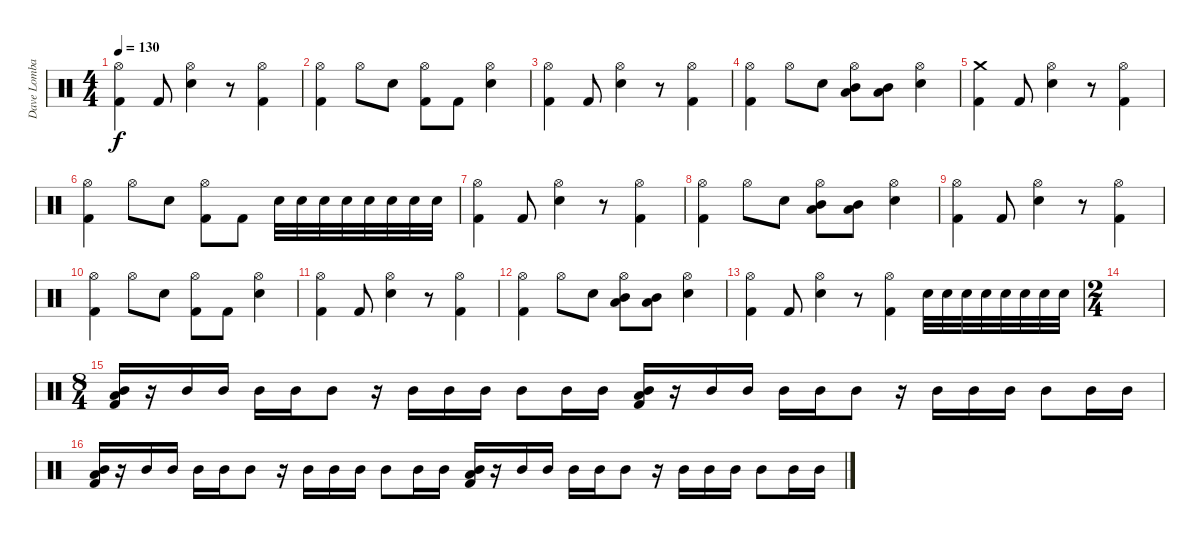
\track ("Dave Lombardo" "Dave Lomba") {instrument percussion}
\staff {score}
\articulation defaults
\ts (4 4)
\tempo 130
\clef neutral
\ks c
("Kick (hit) 2" "Hi-Hat (open)").4{dy f} "Kick (hit) 2".8 ("Electric Snare (hit)" "Hi-Hat (open)").4 r.8 ("Kick (hit) 2" "Hi-Hat (open)").4 |
("Kick (hit) 2" "Hi-Hat (open)").4 "Hi-Hat (open)".8 "Electric Snare (hit)".8 ("Kick (hit) 2" "Hi-Hat (open)").8 "Kick (hit) 2".8 ("Electric Snare (hit)" "Hi-Hat (open)").4 |
("Kick (hit) 2" "Hi-Hat (open)").4 "Kick (hit) 2".8 ("Electric Snare (hit)" "Hi-Hat (open)").4 r.8 ("Kick (hit) 2" "Hi-Hat (open)").4 |
("Kick (hit) 2" "Hi-Hat (open)").4 "Hi-Hat (open)".8 "Electric Snare (hit)".8 ("Mid Tom (hit)" "Low Tom (hit)" "Hi-Hat (open)").8 ("Mid Tom (hit)" "Low Tom (hit)").8 ("Electric Snare (hit)" "Hi-Hat (open)").4 |
("Kick (hit) 2" "Crash medium (hit)").4 "Kick (hit) 2".8 ("Electric Snare (hit)" "Hi-Hat (open)").4 r.8 ("Kick (hit) 2" "Hi-Hat (open)").4 |
("Kick (hit) 2" "Hi-Hat (open)").4 "Hi-Hat (open)".8 "Electric Snare (hit)".8 ("Kick (hit) 2" "Hi-Hat (open)").8 "Kick (hit) 2".8 "Electric Snare (hit)".32 "Electric Snare (hit)".32 "Electric Snare (hit)".32 "Electric Snare (hit)".32 "Snare (hit) 2".32 "Snare (hit) 2".32 "Snare (hit) 2".32 "Snare (hit) 2".32 |
("Kick (hit) 2" "Hi-Hat (open)").4 "Kick (hit) 2".8 ("Electric Snare (hit)" "Hi-Hat (open)").4 r.8 ("Kick (hit) 2" "Hi-Hat (open)").4 |
("Kick (hit) 2" "Hi-Hat (open)").4 "Hi-Hat (open)".8 "Electric Snare (hit)".8 ("Mid Tom (hit)" "Low Tom (hit)" "Hi-Hat (open)").8 ("Mid Tom (hit)" "Low Tom (hit)").8 ("Electric Snare (hit)" "Hi-Hat (open)").4 |
("Kick (hit) 2" "Hi-Hat (open)").4 "Kick (hit) 2".8 ("Electric Snare (hit)" "Hi-Hat (open)").4 r.8 ("Kick (hit) 2" "Hi-Hat (open)").4 |
("Kick (hit) 2" "Hi-Hat (open)").4 "Hi-Hat (open)".8 "Electric Snare (hit)".8 ("Kick (hit) 2" "Hi-Hat (open)").8 "Kick (hit) 2".8 ("Electric Snare (hit)" "Hi-Hat (open)").4 |
("Kick (hit) 2" "Hi-Hat (open)").4 "Kick (hit) 2".8 ("Electric Snare (hit)" "Hi-Hat (open)").4 r.8 ("Kick (hit) 2" "Hi-Hat (open)").4 |
("Kick (hit) 2" "Hi-Hat (open)").4 "Hi-Hat (open)".8 "Electric Snare (hit)".8 ("Mid Tom (hit)" "Low Tom (hit)" "Hi-Hat (open)").8 ("Mid Tom (hit)" "Low Tom (hit)").8 ("Electric Snare (hit)" "Hi-Hat (open)").4 |
("Kick (hit) 2" "Hi-Hat (open)").4 "Kick (hit) 2".8 ("Electric Snare (hit)" "Hi-Hat (open)").4 r.8 ("Kick (hit) 2" "Hi-Hat (open)").4 "Electric Snare (hit)".32 "Electric Snare (hit)".32 "Electric Snare (hit)".32 "Electric Snare (hit)".32 "Snare (hit) 2".32 "Snare (hit) 2".32 "Snare (hit) 2".32 "Snare (hit) 2".32 |
\ts (2 4)
|
\ts (8 4)
("Mid Tom (hit)" "Low Tom (hit)" "Kick (hit) 2").16 r.16 "Mid Tom (hit)".16 "Mid Tom (hit)".16 "Mid Tom (hit)".16 "Mid Tom (hit)".16 "Mid Tom (hit)".8 r.16 "Mid Tom (hit)".16 "Mid Tom (hit)".16 "Mid Tom (hit)".16 "Mid Tom (hit)".8 "Mid Tom (hit)".16 "Mid Tom (hit)".16 ("Mid Tom (hit)" "Low Tom (hit)" "Kick (hit) 2").16 r.16 "Mid Tom (hit)".16 "Mid Tom (hit)".16 "Mid Tom (hit)".16 "Mid Tom (hit)".16 "Mid Tom (hit)".8 r.16 "Mid Tom (hit)".16 "Mid Tom (hit)".16 "Mid Tom (hit)".16 "Mid Tom (hit)".8 "Mid Tom (hit)".16 "Mid Tom (hit)".16 |
("Mid Tom (hit)" "Low Tom (hit)" "Kick (hit) 2").16 r.16 "Mid Tom (hit)".16 "Mid Tom (hit)".16 "Mid Tom (hit)".16 "Mid Tom (hit)".16 "Mid Tom (hit)".8 r.16 "Mid Tom (hit)".16 "Mid Tom (hit)".16 "Mid Tom (hit)".16 "Mid Tom (hit)".8 "Mid Tom (hit)".16 "Mid Tom (hit)".16 ("Mid Tom (hit)" "Low Tom (hit)" "Kick (hit) 2").16 r.16 "Mid Tom (hit)".16 "Mid Tom (hit)".16 "Mid Tom (hit)".16 "Mid Tom (hit)".16 "Mid Tom (hit)".8 r.16 "Mid Tom (hit)".16 "Mid Tom (hit)".16 "Mid Tom (hit)".16 "Mid Tom (hit)".8 "Mid Tom (hit)".16 "Mid Tom (hit)".16
